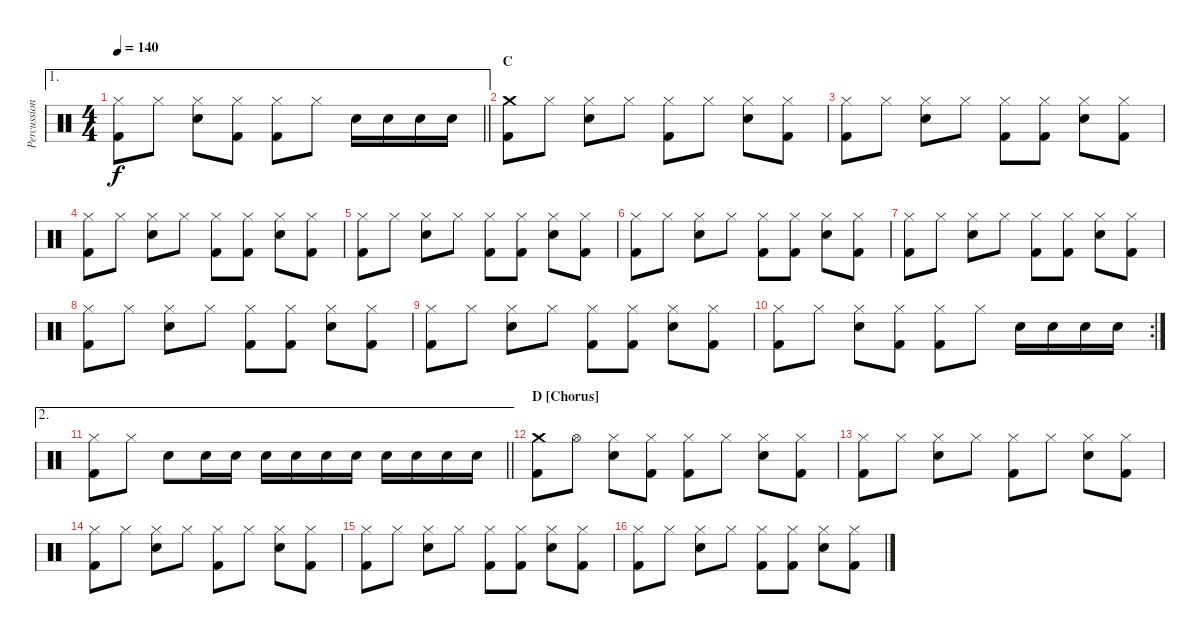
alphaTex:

\track ("Percussion" "Percussion") {instrument percussion}
\staff {score}
\articulation defaults
\ae 1
\ts (4 4)
\tempo 140
\clef neutral
\barLineRight lightlight
\ks c
("Hi-Hat (closed)" "Kick (hit) 2").8{dy f} "Hi-Hat (closed)".8 ("Hi-Hat (closed)" "Snare (hit) 2").8 ("Hi-Hat (closed)" "Kick (hit) 2").8 ("Hi-Hat (closed)" "Kick (hit) 2").8 "Hi-Hat (closed)".8 "Snare (hit) 2".16 "Snare (hit) 2".16 "Snare (hit) 2".16 "Snare (hit) 2".16 |
\section ("" "C")
("Crash medium (hit)" "Kick (hit) 2").8 "Hi-Hat (closed)".8 ("Hi-Hat (closed)" "Snare (hit) 2").8 "Hi-Hat (closed)".8 ("Hi-Hat (closed)" "Kick (hit) 2").8 "Hi-Hat (closed)".8 ("Hi-Hat (closed)" "Snare (hit) 2").8 ("Hi-Hat (closed)" "Kick (hit) 2").8 |
("Hi-Hat (closed)" "Kick (hit) 2").8 "Hi-Hat (closed)".8 ("Hi-Hat (closed)" "Snare (hit) 2").8 "Hi-Hat (closed)".8 ("Hi-Hat (closed)" "Kick (hit) 2").8 ("Hi-Hat (closed)" "Kick (hit) 2").8 ("Hi-Hat (closed)" "Snare (hit) 2").8 ("Hi-Hat (closed)" "Kick (hit) 2").8 |
("Hi-Hat (closed)" "Kick (hit) 2").8 "Hi-Hat (closed)".8 ("Hi-Hat (closed)" "Snare (hit) 2").8 "Hi-Hat (closed)".8 ("Hi-Hat (closed)" "Kick (hit) 2").8 ("Hi-Hat (closed)" "Kick (hit) 2").8 ("Hi-Hat (closed)" "Snare (hit) 2").8 ("Hi-Hat (closed)" "Kick (hit) 2").8 |
("Hi-Hat (closed)" "Kick (hit) 2").8 "Hi-Hat (closed)".8 ("Hi-Hat (closed)" "Snare (hit) 2").8 "Hi-Hat (closed)".8 ("Hi-Hat (closed)" "Kick (hit) 2").8 ("Hi-Hat (closed)" "Kick (hit) 2").8 ("Hi-Hat (closed)" "Snare (hit) 2").8 ("Hi-Hat (closed)" "Kick (hit) 2").8 |
("Hi-Hat (closed)" "Kick (hit) 2").8 "Hi-Hat (closed)".8 ("Hi-Hat (closed)" "Snare (hit) 2").8 "Hi-Hat (closed)".8 ("Hi-Hat (closed)" "Kick (hit) 2").8 ("Hi-Hat (closed)" "Kick (hit) 2").8 ("Hi-Hat (closed)" "Snare (hit) 2").8 ("Hi-Hat (closed)" "Kick (hit) 2").8 |
("Hi-Hat (closed)" "Kick (hit) 2").8 "Hi-Hat (closed)".8 ("Hi-Hat (closed)" "Snare (hit) 2").8 "Hi-Hat (closed)".8 ("Hi-Hat (closed)" "Kick (hit) 2").8 ("Hi-Hat (closed)" "Kick (hit) 2").8 ("Hi-Hat (closed)" "Snare (hit) 2").8 ("Hi-Hat (closed)" "Kick (hit) 2").8 |
("Hi-Hat (closed)" "Kick (hit) 2").8 "Hi-Hat (closed)".8 ("Hi-Hat (closed)" "Snare (hit) 2").8 "Hi-Hat (closed)".8 ("Hi-Hat (closed)" "Kick (hit) 2").8 ("Hi-Hat (closed)" "Kick (hit) 2").8 ("Hi-Hat (closed)" "Snare (hit) 2").8 ("Hi-Hat (closed)" "Kick (hit) 2").8 |
("Hi-Hat (closed)" "Kick (hit) 2").8 "Hi-Hat (closed)".8 ("Hi-Hat (closed)" "Snare (hit) 2").8 "Hi-Hat (closed)".8 ("Hi-Hat (closed)" "Kick (hit) 2").8 ("Hi-Hat (closed)" "Kick (hit) 2").8 ("Hi-Hat (closed)" "Snare (hit) 2").8 ("Hi-Hat (closed)" "Kick (hit) 2").8 |
\rc 2
("Hi-Hat (closed)" "Kick (hit) 2").8 "Hi-Hat (closed)".8 ("Hi-Hat (closed)" "Snare (hit) 2").8 ("Hi-Hat (closed)" "Kick (hit) 2").8 ("Hi-Hat (closed)" "Kick (hit) 2").8 "Hi-Hat (closed)".8 "Snare (hit) 2".16 "Snare (hit) 2".16 "Snare (hit) 2".16 "Snare (hit) 2".16 |
\ae 2
\barLineRight lightlight
("Hi-Hat (closed)" "Kick (hit) 2").8 "Hi-Hat (closed)".8 "Snare (hit) 2".8 "Snare (hit) 2".16 "Snare (hit) 2".16 "Snare (hit) 2".16 "Snare (hit) 2".16 "Snare (hit) 2".16 "Snare (hit) 2".16 "Snare (hit) 2".16 "Snare (hit) 2".16 "Snare (hit) 2".16 "Snare (hit) 2".16 |
\section ("" "D [Chorus]")
("Crash medium (hit)" "Kick (hit) 2").8 "Hi-Hat (open)".8 ("Hi-Hat (closed)" "Snare (hit) 2").8 ("Hi-Hat (closed)" "Kick (hit) 2").8 ("Hi-Hat (closed)" "Kick (hit) 2").8 "Hi-Hat (closed)".8 ("Hi-Hat (closed)" "Snare (hit) 2").8 ("Hi-Hat (closed)" "Kick (hit) 2").8 |
("Hi-Hat (closed)" "Kick (hit) 2").8 "Hi-Hat (closed)".8 ("Hi-Hat (closed)" "Snare (hit) 2").8 "Hi-Hat (closed)".8 ("Hi-Hat (closed)" "Kick (hit) 2").8 "Hi-Hat (closed)".8 ("Hi-Hat (closed)" "Snare (hit) 2").8 ("Hi-Hat (closed)" "Kick (hit) 2").8 |
("Hi-Hat (closed)" "Kick (hit) 2").8 "Hi-Hat (closed)".8 ("Hi-Hat (closed)" "Snare (hit) 2").8 "Hi-Hat (closed)".8 ("Hi-Hat (closed)" "Kick (hit) 2").8 "Hi-Hat (closed)".8 ("Hi-Hat (closed)" "Snare (hit) 2").8 ("Hi-Hat (closed)" "Kick (hit) 2").8 |
("Hi-Hat (closed)" "Kick (hit) 2").8 "Hi-Hat (closed)".8 ("Hi-Hat (closed)" "Snare (hit) 2").8 "Hi-Hat (closed)".8 ("Hi-Hat (closed)" "Kick (hit) 2").8 ("Hi-Hat (closed)" "Kick (hit) 2").8 ("Hi-Hat (closed)" "Snare (hit) 2").8 ("Hi-Hat (closed)" "Kick (hit) 2").8 |
("Hi-Hat (closed)" "Kick (hit) 2").8 "Hi-Hat (closed)".8 ("Hi-Hat (closed)" "Snare (hit) 2").8 "Hi-Hat (closed)".8 ("Hi-Hat (closed)" "Kick (hit) 2").8 ("Hi-Hat (closed)" "Kick (hit) 2").8 ("Hi-Hat (closed)" "Snare (hit) 2").8 ("Hi-Hat (closed)" "Kick (hit) 2").8
